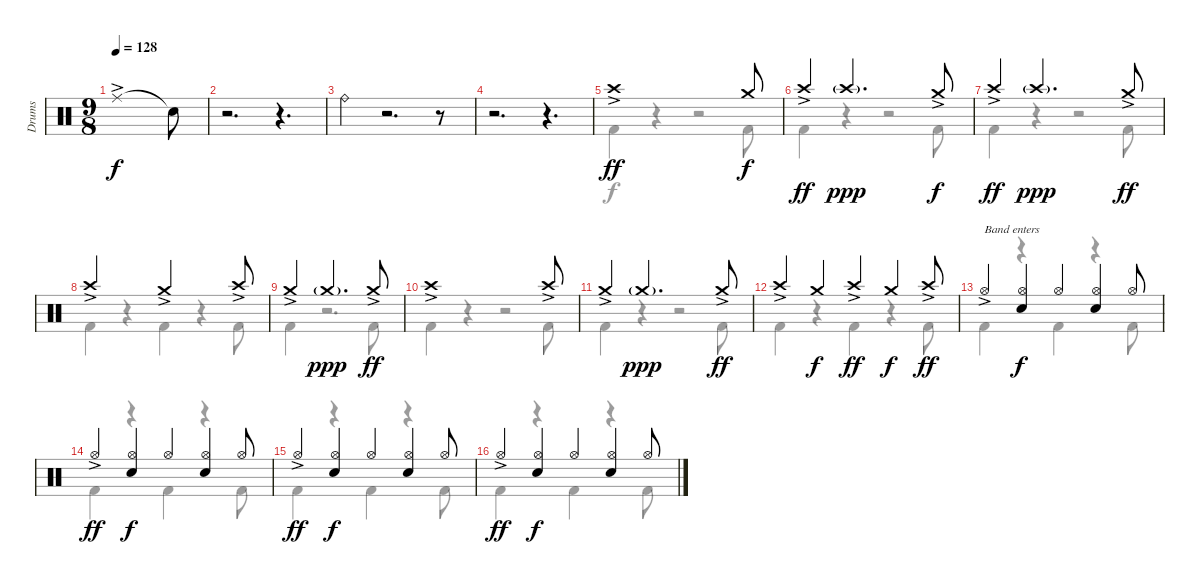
\track ("Drums" "Drums") {instrument percussion}
\staff {score}
\articulation defaults
\voice
\ts (9 8)
\tempo 128
\clef neutral
\ks c "Ride (middle)"{ac}.1{dy f} "Snare (hit)"{t}.8
|
r.2{d} r.4{d} |
"Ride (bell)".4 r.2{d} r.8 |
r.2{d} r.4{d} |
"Crash high (hit)"{ac}.1{dy ff} "Crash medium (hit)".8{dy f} |
"Crash high (hit)"{ac}.4{dy ff} "Crash high (hit)"{g}.2{d dy ppp} "Crash medium (hit)"{ac}.8{dy f} |
"Crash high (hit)"{ac}.4{dy ff} "Crash high (hit)"{g}.2{d dy ppp} "Crash medium (hit)"{ac}.8{dy ff} |
"Crash high (hit)"{ac}.2 "Crash medium (hit)"{ac}.2 "Crash high (hit)"{ac}.8 |
"Crash medium (hit)"{ac}.4 "Crash medium (hit)"{g}.2{d dy ppp} "Crash medium (hit)"{ac}.8{dy ff} |
"Crash high (hit)"{ac}.1 "Crash high (hit)"{ac}.8 |
"Crash medium (hit)"{ac}.4 "Crash medium (hit)"{g}.2{d dy ppp} "Crash medium (hit)"{ac}.8{dy ff} |
"Crash high (hit)"{ac}.4 "Crash medium (hit)".4{dy f} "Crash high (hit)"{ac}.4{dy ff} "Crash medium (hit)".4{dy f} "Crash high (hit)"{ac}.8{dy ff} |
"Hi-Hat (open)"{ac}.4{txt "Band enters"} ("Hi-Hat (open)" "Electric Snare (hit)").4{dy f} "Hi-Hat (open)".4 ("Hi-Hat (open)" "Electric Snare (hit)").4 "Hi-Hat (open)".8 |
"Hi-Hat (open)"{ac}.4{dy ff} ("Hi-Hat (open)" "Electric Snare (hit)").4{dy f} "Hi-Hat (open)".4 ("Hi-Hat (open)" "Electric Snare (hit)").4 "Hi-Hat (open)".8 |
"Hi-Hat (open)"{ac}.4{dy ff} ("Hi-Hat (open)" "Electric Snare (hit)").4{dy f} "Hi-Hat (open)".4 ("Hi-Hat (open)" "Electric Snare (hit)").4 "Hi-Hat (open)".8 |
"Hi-Hat (open)"{ac}.4{dy ff} ("Hi-Hat (open)" "Electric Snare (hit)").4{dy f} "Hi-Hat (open)".4 ("Hi-Hat (open)" "Electric Snare (hit)").4 "Hi-Hat (open)".8
\voice
\clef neutral
\ottava regular
\simile none
\ks c
|
|
|
|
"Kick (hit) 2".4 r.4 r.2 "Kick (hit) 2".8 |
"Kick (hit) 2".4 r.4 r.2 "Kick (hit) 2".8 |
"Kick (hit) 2".4 r.4 r.2 "Kick (hit) 2".8 |
"Kick (hit) 2".4 r.4 "Kick (hit) 2".4 r.4 "Kick (hit) 2".8 |
"Kick (hit) 2".4 r.2{d} "Kick (hit) 2".8 |
"Kick (hit) 2".4 r.4 r.2 "Kick (hit) 2".8 |
"Kick (hit) 2".4 r.4 r.2 "Kick (hit) 2".8 |
"Kick (hit) 2".4 r.4 "Kick (hit) 2".4 r.4 "Kick (hit) 2".8 |
"Kick (hit) 2".4 r.4 "Kick (hit) 2".4 r.4 "Kick (hit) 2".8 |
"Kick (hit) 2".4 r.4 "Kick (hit) 2".4 r.4 "Kick (hit) 2".8 |
"Kick (hit) 2".4 r.4 "Kick (hit) 2".4 r.4 "Kick (hit) 2".8 |
"Kick (hit) 2".4 r.4 "Kick (hit) 2".4 r.4 "Kick (hit) 2".8
